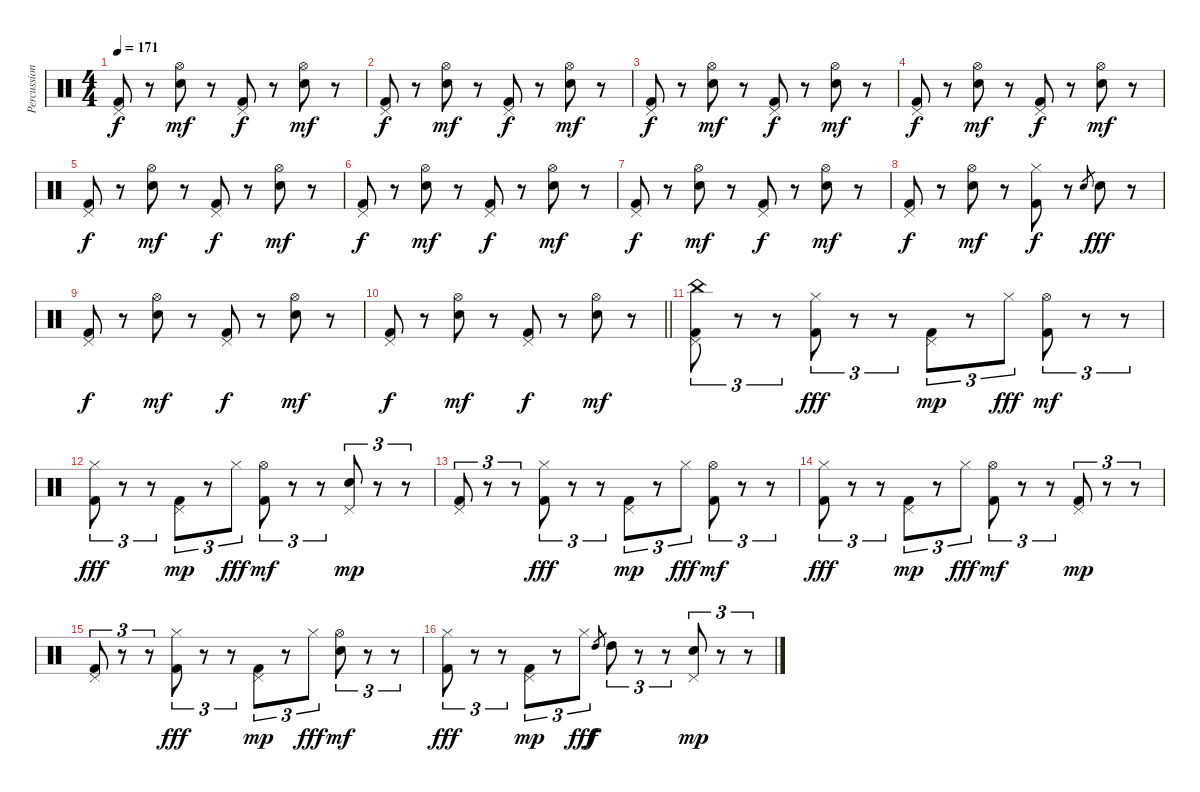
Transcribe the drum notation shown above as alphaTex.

\track ("Percussions" "Percussion") {instrument percussion}
\staff {score}
\articulation defaults
\ts (4 4)
\tempo 171
\clef neutral
\ks c
("Kick (hit) 2" "Pedal Hi-Hat (hit)").8{dy f} r.8 ("Electric Snare (hit)" "Hi-Hat (open)").8{dy mf} r.8 ("Kick (hit) 2" "Pedal Hi-Hat (hit)").8{dy f} r.8 ("Electric Snare (hit)" "Hi-Hat (open)").8{dy mf} r.8 |
("Kick (hit) 2" "Pedal Hi-Hat (hit)").8{dy f} r.8 ("Electric Snare (hit)" "Hi-Hat (open)").8{dy mf} r.8 ("Kick (hit) 2" "Pedal Hi-Hat (hit)").8{dy f} r.8 ("Electric Snare (hit)" "Hi-Hat (open)").8{dy mf} r.8 |
("Kick (hit) 2" "Pedal Hi-Hat (hit)").8{dy f} r.8 ("Electric Snare (hit)" "Hi-Hat (open)").8{dy mf} r.8 ("Kick (hit) 2" "Pedal Hi-Hat (hit)").8{dy f} r.8 ("Electric Snare (hit)" "Hi-Hat (open)").8{dy mf} r.8 |
("Kick (hit) 2" "Pedal Hi-Hat (hit)").8{dy f} r.8 ("Electric Snare (hit)" "Hi-Hat (open)").8{dy mf} r.8 ("Kick (hit) 2" "Pedal Hi-Hat (hit)").8{dy f} r.8 ("Electric Snare (hit)" "Hi-Hat (open)").8{dy mf} r.8 |
("Kick (hit) 2" "Pedal Hi-Hat (hit)").8{dy f} r.8 ("Electric Snare (hit)" "Hi-Hat (open)").8{dy mf} r.8 ("Kick (hit) 2" "Pedal Hi-Hat (hit)").8{dy f} r.8 ("Electric Snare (hit)" "Hi-Hat (open)").8{dy mf} r.8 |
("Kick (hit) 2" "Pedal Hi-Hat (hit)").8{dy f} r.8 ("Electric Snare (hit)" "Hi-Hat (open)").8{dy mf} r.8 ("Kick (hit) 2" "Pedal Hi-Hat (hit)").8{dy f} r.8 ("Electric Snare (hit)" "Hi-Hat (open)").8{dy mf} r.8 |
("Kick (hit) 2" "Pedal Hi-Hat (hit)").8{dy f} r.8 ("Electric Snare (hit)" "Hi-Hat (open)").8{dy mf} r.8 ("Kick (hit) 2" "Pedal Hi-Hat (hit)").8{dy f} r.8 ("Electric Snare (hit)" "Hi-Hat (open)").8{dy mf} r.8 |
("Kick (hit) 2" "Pedal Hi-Hat (hit)").8{dy f} r.8 ("Electric Snare (hit)" "Hi-Hat (open)").8{dy mf} r.8 ("Kick (hit) 2" "Hi-Hat (closed)").8{dy f} r.8 "Electric Snare (hit)".8{gr} "Electric Snare (hit)".8{dy fff} r.8 |
("Kick (hit) 2" "Pedal Hi-Hat (hit)").8{dy f} r.8 ("Electric Snare (hit)" "Hi-Hat (open)").8{dy mf} r.8 ("Kick (hit) 2" "Pedal Hi-Hat (hit)").8{dy f} r.8 ("Electric Snare (hit)" "Hi-Hat (open)").8{dy mf} r.8 |
\barLineRight lightlight
("Kick (hit) 2" "Pedal Hi-Hat (hit)").8{dy f} r.8 ("Electric Snare (hit)" "Hi-Hat (open)").8{dy mf} r.8 ("Kick (hit) 2" "Pedal Hi-Hat (hit)").8{dy f} r.8 ("Electric Snare (hit)" "Hi-Hat (open)").8{dy mf} r.8 |
\section ("" "")
("Kick (hit) 2" "Pedal Hi-Hat (hit)" "China (hit)").8{tu (3 2)} r.8{tu (3 2)} r.8{tu (3 2)} ("Kick (hit) 2" "Hi-Hat (closed)").8{tu (3 2) dy fff} r.8{tu (3 2)} r.8{tu (3 2)} ("Kick (hit) 2" "Pedal Hi-Hat (hit)").8{tu (3 2) dy mp} r.8{tu (3 2)} "Hi-Hat (closed)".8{tu (3 2) dy fff} ("Kick (hit) 2" "Hi-Hat (open)").8{tu (3 2) dy mf} r.8{tu (3 2)} r.8{tu (3 2)} |
("Kick (hit) 2" "Hi-Hat (closed)").8{tu (3 2) dy fff} r.8{tu (3 2)} r.8{tu (3 2)} ("Kick (hit) 2" "Pedal Hi-Hat (hit)").8{tu (3 2) dy mp} r.8{tu (3 2)} "Hi-Hat (closed)".8{tu (3 2) dy fff} ("Kick (hit) 2" "Hi-Hat (open)").8{tu (3 2) dy mf} r.8{tu (3 2)} r.8{tu (3 2)} ("Electric Snare (hit)" "Pedal Hi-Hat (hit)").8{tu (3 2) dy mp} r.8{tu (3 2)} r.8{tu (3 2)} |
("Kick (hit) 2" "Pedal Hi-Hat (hit)").8{tu (3 2)} r.8{tu (3 2)} r.8{tu (3 2)} ("Kick (hit) 2" "Hi-Hat (closed)").8{tu (3 2) dy fff} r.8{tu (3 2)} r.8{tu (3 2)} ("Kick (hit) 2" "Pedal Hi-Hat (hit)").8{tu (3 2) dy mp} r.8{tu (3 2)} "Hi-Hat (closed)".8{tu (3 2) dy fff} ("Kick (hit) 2" "Hi-Hat (open)").8{tu (3 2) dy mf} r.8{tu (3 2)} r.8{tu (3 2)} |
("Kick (hit) 2" "Hi-Hat (closed)").8{tu (3 2) dy fff} r.8{tu (3 2)} r.8{tu (3 2)} ("Kick (hit) 2" "Pedal Hi-Hat (hit)").8{tu (3 2) dy mp} r.8{tu (3 2)} "Hi-Hat (closed)".8{tu (3 2) dy fff} ("Kick (hit) 2" "Hi-Hat (open)").8{tu (3 2) dy mf} r.8{tu (3 2)} r.8{tu (3 2)} ("Kick (hit) 2" "Pedal Hi-Hat (hit)").8{tu (3 2) dy mp} r.8{tu (3 2)} r.8{tu (3 2)} |
("Kick (hit) 2" "Pedal Hi-Hat (hit)").8{tu (3 2)} r.8{tu (3 2)} r.8{tu (3 2)} ("Kick (hit) 2" "Hi-Hat (closed)").8{tu (3 2) dy fff} r.8{tu (3 2)} r.8{tu (3 2)} ("Kick (hit) 2" "Pedal Hi-Hat (hit)").8{tu (3 2) dy mp} r.8{tu (3 2)} "Hi-Hat (closed)".8{tu (3 2) dy fff} ("Electric Snare (hit)" "Hi-Hat (open)").8{tu (3 2) dy mf} r.8{tu (3 2)} r.8{tu (3 2)} |
("Kick (hit) 2" "Hi-Hat (closed)").8{tu (3 2) dy fff} r.8{tu (3 2)} r.8{tu (3 2)} ("Kick (hit) 2" "Pedal Hi-Hat (hit)").8{tu (3 2) dy mp} r.8{tu (3 2)} "Hi-Hat (closed)".8{tu (3 2) dy fff} "High Tom (hit)".8{gr dy f} "High Tom (hit)".8{tu (3 2)} r.8{tu (3 2)} r.8{tu (3 2)} ("Electric Snare (hit)" "Pedal Hi-Hat (hit)").8{tu (3 2) dy mp} r.8{tu (3 2)} r.8{tu (3 2)}
